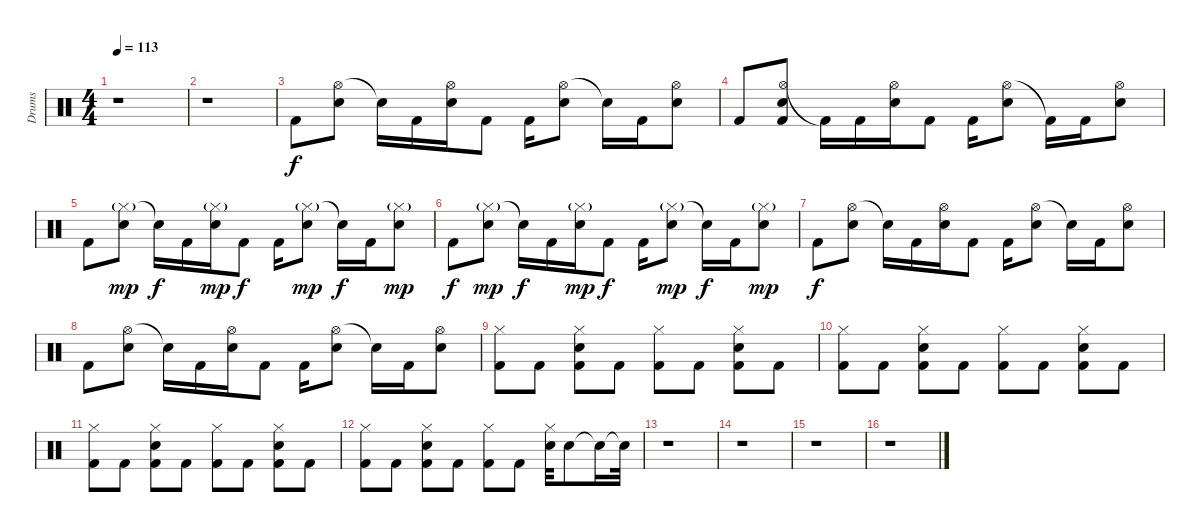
\track ("Drums" "Drums") {instrument percussion}
\staff {score}
\articulation defaults
\ts (4 4)
\tempo 113
\clef neutral
\ks c
r.1{dy f} |
r.1 |
"Kick (hit) 2".8 ("Hi-Hat (open)" "Electric Snare (hit)").8 "Electric Snare (hit)"{t}.16 "Kick (hit) 2".16 ("Hi-Hat (open)" "Electric Snare (hit)").16 "Kick (hit) 2".8 "Kick (hit) 2".16 ("Hi-Hat (open)" "Electric Snare (hit)").8 "Electric Snare (hit)"{t}.16 "Kick (hit) 2".16 ("Hi-Hat (open)" "Electric Snare (hit)").8 |
"Kick (hit) 2".8 ("Hi-Hat (open)" "Electric Snare (hit)" "Kick (hit) 2").8 "Kick (hit) 2"{t}.16 "Kick (hit) 2".16 ("Hi-Hat (open)" "Electric Snare (hit)").16 "Kick (hit) 2".8 "Kick (hit) 2".16 ("Hi-Hat (open)" "Electric Snare (hit)").8 "Kick (hit) 2"{t}.16 "Kick (hit) 2".16 ("Hi-Hat (open)" "Electric Snare (hit)").8 |
"Kick (hit) 2".8 ("Hi-Hat (closed)"{g} "Electric Snare (hit)").8{dy mp} "Electric Snare (hit)"{t}.16{dy f} "Kick (hit) 2".16 ("Hi-Hat (closed)"{g} "Electric Snare (hit)").16{dy mp} "Kick (hit) 2".8{dy f} "Kick (hit) 2".16 ("Hi-Hat (closed)"{g} "Electric Snare (hit)").8{dy mp} "Electric Snare (hit)"{t}.16{dy f} "Kick (hit) 2".16 ("Hi-Hat (closed)"{g} "Electric Snare (hit)").8{dy mp} |
"Kick (hit) 2".8{dy f} ("Hi-Hat (closed)"{g} "Electric Snare (hit)").8{dy mp} "Electric Snare (hit)"{t}.16{dy f} "Kick (hit) 2".16 ("Hi-Hat (closed)"{g} "Electric Snare (hit)").16{dy mp} "Kick (hit) 2".8{dy f} "Kick (hit) 2".16 ("Hi-Hat (closed)"{g} "Electric Snare (hit)").8{dy mp} "Electric Snare (hit)"{t}.16{dy f} "Kick (hit) 2".16 ("Hi-Hat (closed)"{g} "Electric Snare (hit)").8{dy mp} |
"Kick (hit) 2".8{dy f} ("Hi-Hat (open)" "Electric Snare (hit)").8 "Electric Snare (hit)"{t}.16 "Kick (hit) 2".16 ("Hi-Hat (open)" "Electric Snare (hit)").16 "Kick (hit) 2".8 "Kick (hit) 2".16 ("Hi-Hat (open)" "Electric Snare (hit)").8 "Electric Snare (hit)"{t}.16 "Kick (hit) 2".16 ("Hi-Hat (open)" "Electric Snare (hit)").8 |
"Kick (hit) 2".8 ("Hi-Hat (open)" "Electric Snare (hit)").8 "Electric Snare (hit)"{t}.16 "Kick (hit) 2".16 ("Hi-Hat (open)" "Electric Snare (hit)").16 "Kick (hit) 2".8 "Kick (hit) 2".16 ("Hi-Hat (open)" "Electric Snare (hit)").8 "Electric Snare (hit)"{t}.16 "Kick (hit) 2".16 ("Hi-Hat (open)" "Electric Snare (hit)").8 |
("Hi-Hat (closed)" "Kick (hit) 2").8 "Kick (hit) 2".8 ("Hi-Hat (closed)" "Electric Snare (hit)" "Kick (hit) 2").8 "Kick (hit) 2".8 ("Hi-Hat (closed)" "Kick (hit) 2").8 "Kick (hit) 2".8 ("Hi-Hat (closed)" "Electric Snare (hit)" "Kick (hit) 2").8 "Kick (hit) 2".8 |
("Hi-Hat (closed)" "Kick (hit) 2").8 "Kick (hit) 2".8 ("Hi-Hat (closed)" "Electric Snare (hit)" "Kick (hit) 2").8 "Kick (hit) 2".8 ("Hi-Hat (closed)" "Kick (hit) 2").8 "Kick (hit) 2".8 ("Hi-Hat (closed)" "Electric Snare (hit)" "Kick (hit) 2").8 "Kick (hit) 2".8 |
("Hi-Hat (closed)" "Kick (hit) 2").8 "Kick (hit) 2".8 ("Hi-Hat (closed)" "Electric Snare (hit)" "Kick (hit) 2").8 "Kick (hit) 2".8 ("Hi-Hat (closed)" "Kick (hit) 2").8 "Kick (hit) 2".8 ("Hi-Hat (closed)" "Electric Snare (hit)" "Kick (hit) 2").8 "Kick (hit) 2".8 |
("Hi-Hat (closed)" "Kick (hit) 2").8 "Kick (hit) 2".8 ("Hi-Hat (closed)" "Electric Snare (hit)" "Kick (hit) 2").8 "Kick (hit) 2".8 ("Hi-Hat (closed)" "Kick (hit) 2").8 "Kick (hit) 2".8 ("Hi-Hat (closed)" "Electric Snare (hit)").32 "Electric Snare (hit)".8 "Electric Snare (hit)"{t}.16 "Electric Snare (hit)"{t}.32 |
r.1 |
r.1 |
r.1 |
r.1
